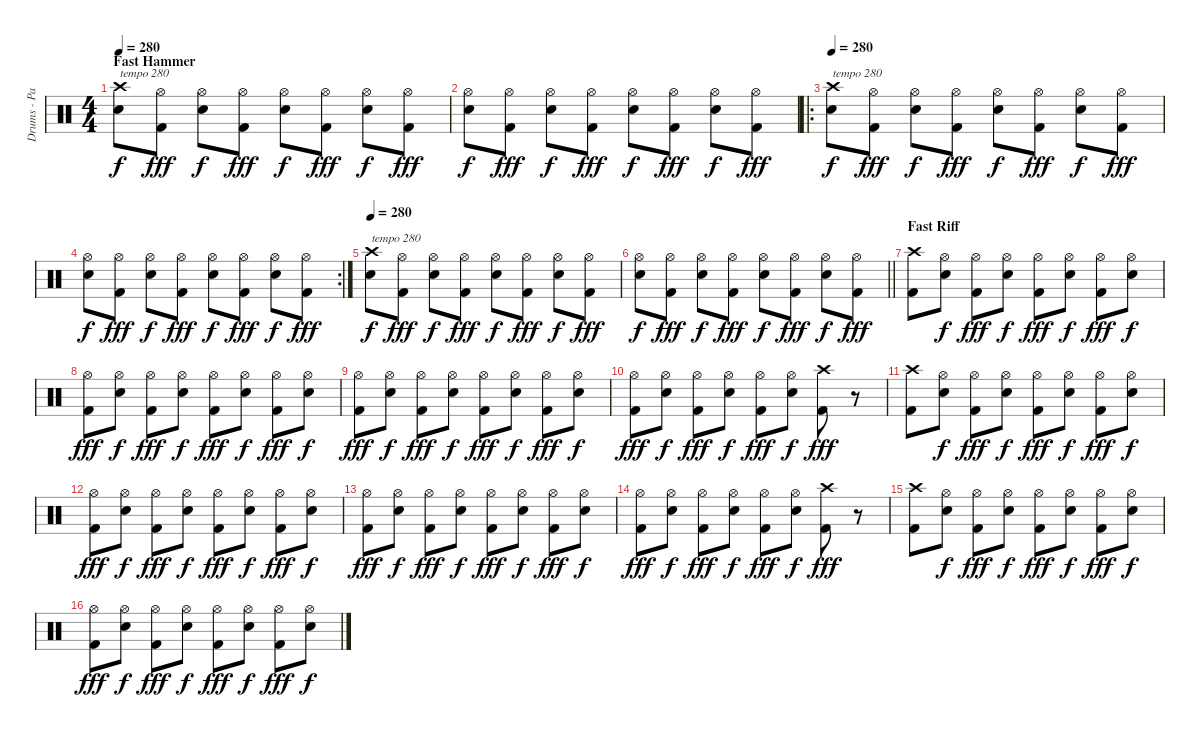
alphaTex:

\track ("Drums - Paul Mazurkiewicz" "Drums - Pa") {instrument percussion}
\staff {score}
\articulation defaults
\ts (4 4)
\section ("" "Fast Hammer")
\tempo 280
\clef neutral
\ks c
("Crash high (hit)" "Snare (hit) 2").8{txt "tempo 280" dy f} ("Hi-Hat (open)" "Kick (hit) 2").8{dy fff} ("Hi-Hat (open)" "Snare (hit) 2").8{dy f} ("Hi-Hat (open)" "Kick (hit) 2").8{dy fff} ("Hi-Hat (open)" "Snare (hit) 2").8{dy f} ("Hi-Hat (open)" "Kick (hit) 2").8{dy fff} ("Hi-Hat (open)" "Snare (hit) 2").8{dy f} ("Hi-Hat (open)" "Kick (hit) 2").8{dy fff} |
("Hi-Hat (open)" "Snare (hit) 2").8{dy f} ("Hi-Hat (open)" "Kick (hit) 2").8{dy fff} ("Hi-Hat (open)" "Snare (hit) 2").8{dy f} ("Hi-Hat (open)" "Kick (hit) 2").8{dy fff} ("Hi-Hat (open)" "Snare (hit) 2").8{dy f} ("Hi-Hat (open)" "Kick (hit) 2").8{dy fff} ("Hi-Hat (open)" "Snare (hit) 2").8{dy f} ("Hi-Hat (open)" "Kick (hit) 2").8{dy fff} |
\ro
\tempo 280
("Crash high (hit)" "Snare (hit) 2").8{txt "tempo 280" dy f} ("Hi-Hat (open)" "Kick (hit) 2").8{dy fff} ("Hi-Hat (open)" "Snare (hit) 2").8{dy f} ("Hi-Hat (open)" "Kick (hit) 2").8{dy fff} ("Hi-Hat (open)" "Snare (hit) 2").8{dy f} ("Hi-Hat (open)" "Kick (hit) 2").8{dy fff} ("Hi-Hat (open)" "Snare (hit) 2").8{dy f} ("Hi-Hat (open)" "Kick (hit) 2").8{dy fff} |
\rc 2
("Hi-Hat (open)" "Snare (hit) 2").8{dy f} ("Hi-Hat (open)" "Kick (hit) 2").8{dy fff} ("Hi-Hat (open)" "Snare (hit) 2").8{dy f} ("Hi-Hat (open)" "Kick (hit) 2").8{dy fff} ("Hi-Hat (open)" "Snare (hit) 2").8{dy f} ("Hi-Hat (open)" "Kick (hit) 2").8{dy fff} ("Hi-Hat (open)" "Snare (hit) 2").8{dy f} ("Hi-Hat (open)" "Kick (hit) 2").8{dy fff} |
\tempo 280
("Crash high (hit)" "Snare (hit) 2").8{txt "tempo 280" dy f} ("Hi-Hat (open)" "Kick (hit) 2").8{dy fff} ("Hi-Hat (open)" "Snare (hit) 2").8{dy f} ("Hi-Hat (open)" "Kick (hit) 2").8{dy fff} ("Hi-Hat (open)" "Snare (hit) 2").8{dy f} ("Hi-Hat (open)" "Kick (hit) 2").8{dy fff} ("Hi-Hat (open)" "Snare (hit) 2").8{dy f} ("Hi-Hat (open)" "Kick (hit) 2").8{dy fff} |
\barLineRight lightlight
("Hi-Hat (open)" "Snare (hit) 2").8{dy f} ("Hi-Hat (open)" "Kick (hit) 2").8{dy fff} ("Hi-Hat (open)" "Snare (hit) 2").8{dy f} ("Hi-Hat (open)" "Kick (hit) 2").8{dy fff} ("Hi-Hat (open)" "Snare (hit) 2").8{dy f} ("Hi-Hat (open)" "Kick (hit) 2").8{dy fff} ("Hi-Hat (open)" "Snare (hit) 2").8{dy f} ("Hi-Hat (open)" "Kick (hit) 2").8{dy fff} |
\section ("" "Fast Riff")
("Crash high (hit)" "Kick (hit) 2").8 ("Hi-Hat (open)" "Snare (hit) 2").8{dy f} ("Hi-Hat (open)" "Kick (hit) 2").8{dy fff} ("Hi-Hat (open)" "Snare (hit) 2").8{dy f} ("Hi-Hat (open)" "Kick (hit) 2").8{dy fff} ("Hi-Hat (open)" "Snare (hit) 2").8{dy f} ("Hi-Hat (open)" "Kick (hit) 2").8{dy fff} ("Hi-Hat (open)" "Snare (hit) 2").8{dy f} |
("Hi-Hat (open)" "Kick (hit) 2").8{dy fff} ("Hi-Hat (open)" "Snare (hit) 2").8{dy f} ("Hi-Hat (open)" "Kick (hit) 2").8{dy fff} ("Hi-Hat (open)" "Snare (hit) 2").8{dy f} ("Hi-Hat (open)" "Kick (hit) 2").8{dy fff} ("Hi-Hat (open)" "Snare (hit) 2").8{dy f} ("Hi-Hat (open)" "Kick (hit) 2").8{dy fff} ("Hi-Hat (open)" "Snare (hit) 2").8{dy f} |
("Hi-Hat (open)" "Kick (hit) 2").8{dy fff} ("Hi-Hat (open)" "Snare (hit) 2").8{dy f} ("Hi-Hat (open)" "Kick (hit) 2").8{dy fff} ("Hi-Hat (open)" "Snare (hit) 2").8{dy f} ("Hi-Hat (open)" "Kick (hit) 2").8{dy fff} ("Hi-Hat (open)" "Snare (hit) 2").8{dy f} ("Hi-Hat (open)" "Kick (hit) 2").8{dy fff} ("Hi-Hat (open)" "Snare (hit) 2").8{dy f} |
("Hi-Hat (open)" "Kick (hit) 2").8{dy fff} ("Hi-Hat (open)" "Snare (hit) 2").8{dy f} ("Hi-Hat (open)" "Kick (hit) 2").8{dy fff} ("Hi-Hat (open)" "Snare (hit) 2").8{dy f} ("Hi-Hat (open)" "Kick (hit) 2").8{dy fff} ("Hi-Hat (open)" "Snare (hit) 2").8{dy f} ("Crash high (hit)" "Kick (hit) 2").8{dy fff} r.8 |
("Crash high (hit)" "Kick (hit) 2").8 ("Hi-Hat (open)" "Snare (hit) 2").8{dy f} ("Hi-Hat (open)" "Kick (hit) 2").8{dy fff} ("Hi-Hat (open)" "Snare (hit) 2").8{dy f} ("Hi-Hat (open)" "Kick (hit) 2").8{dy fff} ("Hi-Hat (open)" "Snare (hit) 2").8{dy f} ("Hi-Hat (open)" "Kick (hit) 2").8{dy fff} ("Hi-Hat (open)" "Snare (hit) 2").8{dy f} |
("Hi-Hat (open)" "Kick (hit) 2").8{dy fff} ("Hi-Hat (open)" "Snare (hit) 2").8{dy f} ("Hi-Hat (open)" "Kick (hit) 2").8{dy fff} ("Hi-Hat (open)" "Snare (hit) 2").8{dy f} ("Hi-Hat (open)" "Kick (hit) 2").8{dy fff} ("Hi-Hat (open)" "Snare (hit) 2").8{dy f} ("Hi-Hat (open)" "Kick (hit) 2").8{dy fff} ("Hi-Hat (open)" "Snare (hit) 2").8{dy f} |
("Hi-Hat (open)" "Kick (hit) 2").8{dy fff} ("Hi-Hat (open)" "Snare (hit) 2").8{dy f} ("Hi-Hat (open)" "Kick (hit) 2").8{dy fff} ("Hi-Hat (open)" "Snare (hit) 2").8{dy f} ("Hi-Hat (open)" "Kick (hit) 2").8{dy fff} ("Hi-Hat (open)" "Snare (hit) 2").8{dy f} ("Hi-Hat (open)" "Kick (hit) 2").8{dy fff} ("Hi-Hat (open)" "Snare (hit) 2").8{dy f} |
("Hi-Hat (open)" "Kick (hit) 2").8{dy fff} ("Hi-Hat (open)" "Snare (hit) 2").8{dy f} ("Hi-Hat (open)" "Kick (hit) 2").8{dy fff} ("Hi-Hat (open)" "Snare (hit) 2").8{dy f} ("Hi-Hat (open)" "Kick (hit) 2").8{dy fff} ("Hi-Hat (open)" "Snare (hit) 2").8{dy f} ("Crash high (hit)" "Kick (hit) 2").8{dy fff} r.8 |
("Crash high (hit)" "Kick (hit) 2").8 ("Hi-Hat (open)" "Snare (hit) 2").8{dy f} ("Hi-Hat (open)" "Kick (hit) 2").8{dy fff} ("Hi-Hat (open)" "Snare (hit) 2").8{dy f} ("Hi-Hat (open)" "Kick (hit) 2").8{dy fff} ("Hi-Hat (open)" "Snare (hit) 2").8{dy f} ("Hi-Hat (open)" "Kick (hit) 2").8{dy fff} ("Hi-Hat (open)" "Snare (hit) 2").8{dy f} |
("Hi-Hat (open)" "Kick (hit) 2").8{dy fff} ("Hi-Hat (open)" "Snare (hit) 2").8{dy f} ("Hi-Hat (open)" "Kick (hit) 2").8{dy fff} ("Hi-Hat (open)" "Snare (hit) 2").8{dy f} ("Hi-Hat (open)" "Kick (hit) 2").8{dy fff} ("Hi-Hat (open)" "Snare (hit) 2").8{dy f} ("Hi-Hat (open)" "Kick (hit) 2").8{dy fff} ("Hi-Hat (open)" "Snare (hit) 2").8{dy f}
